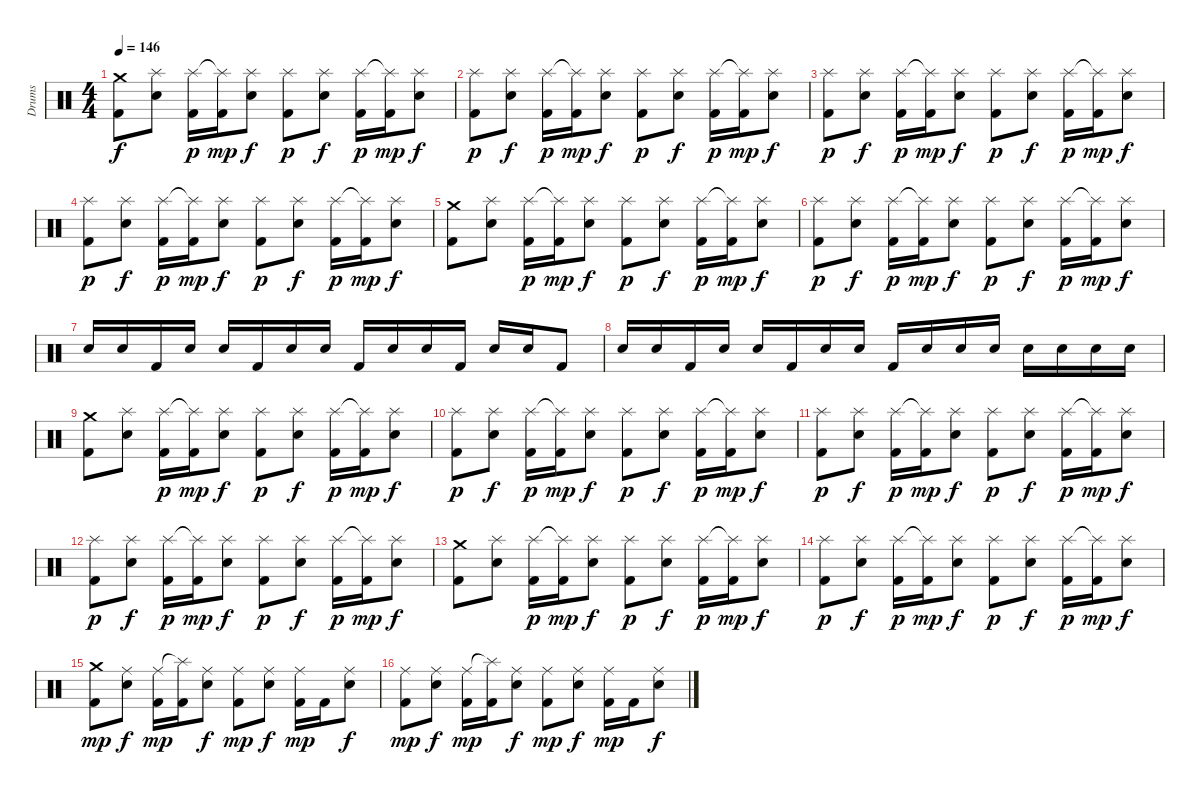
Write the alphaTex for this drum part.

\track ("Drums" "Drums") {instrument percussion}
\staff {score}
\articulation defaults
\ts (4 4)
\tempo 146
\clef neutral
\ks c
("Crash medium (hit)" "Kick (hit) 2").8{dy f} ("Splash (hit)" "Snare (hit) 2").8 ("Splash (hit)" "Kick (hit) 2").16{dy p} ("Splash (hit)"{t} "Kick (hit) 2").16{dy mp} ("Splash (hit)" "Snare (hit) 2").8{dy f} ("Splash (hit)" "Kick (hit) 2").8{dy p} ("Splash (hit)" "Snare (hit) 2").8{dy f} ("Splash (hit)" "Kick (hit) 2").16{dy p} ("Splash (hit)"{t} "Kick (hit) 2").16{dy mp} ("Splash (hit)" "Snare (hit) 2").8{dy f} |
("Splash (hit)" "Kick (hit) 2").8{dy p} ("Splash (hit)" "Snare (hit) 2").8{dy f} ("Splash (hit)" "Kick (hit) 2").16{dy p} ("Splash (hit)"{t} "Kick (hit) 2").16{dy mp} ("Splash (hit)" "Snare (hit) 2").8{dy f} ("Splash (hit)" "Kick (hit) 2").8{dy p} ("Splash (hit)" "Snare (hit) 2").8{dy f} ("Splash (hit)" "Kick (hit) 2").16{dy p} ("Splash (hit)"{t} "Kick (hit) 2").16{dy mp} ("Splash (hit)" "Snare (hit) 2").8{dy f} |
("Splash (hit)" "Kick (hit) 2").8{dy p} ("Splash (hit)" "Snare (hit) 2").8{dy f} ("Splash (hit)" "Kick (hit) 2").16{dy p} ("Splash (hit)"{t} "Kick (hit) 2").16{dy mp} ("Splash (hit)" "Snare (hit) 2").8{dy f} ("Splash (hit)" "Kick (hit) 2").8{dy p} ("Splash (hit)" "Snare (hit) 2").8{dy f} ("Splash (hit)" "Kick (hit) 2").16{dy p} ("Splash (hit)"{t} "Kick (hit) 2").16{dy mp} ("Splash (hit)" "Snare (hit) 2").8{dy f} |
("Splash (hit)" "Kick (hit) 2").8{dy p} ("Splash (hit)" "Snare (hit) 2").8{dy f} ("Splash (hit)" "Kick (hit) 2").16{dy p} ("Splash (hit)"{t} "Kick (hit) 2").16{dy mp} ("Splash (hit)" "Snare (hit) 2").8{dy f} ("Splash (hit)" "Kick (hit) 2").8{dy p} ("Splash (hit)" "Snare (hit) 2").8{dy f} ("Splash (hit)" "Kick (hit) 2").16{dy p} ("Splash (hit)"{t} "Kick (hit) 2").16{dy mp} ("Splash (hit)" "Snare (hit) 2").8{dy f} |
("Crash medium (hit)" "Kick (hit) 2").8 ("Splash (hit)" "Snare (hit) 2").8 ("Splash (hit)" "Kick (hit) 2").16{dy p} ("Splash (hit)"{t} "Kick (hit) 2").16{dy mp} ("Splash (hit)" "Snare (hit) 2").8{dy f} ("Splash (hit)" "Kick (hit) 2").8{dy p} ("Splash (hit)" "Snare (hit) 2").8{dy f} ("Splash (hit)" "Kick (hit) 2").16{dy p} ("Splash (hit)"{t} "Kick (hit) 2").16{dy mp} ("Splash (hit)" "Snare (hit) 2").8{dy f} |
("Splash (hit)" "Kick (hit) 2").8{dy p} ("Splash (hit)" "Snare (hit) 2").8{dy f} ("Splash (hit)" "Kick (hit) 2").16{dy p} ("Splash (hit)"{t} "Kick (hit) 2").16{dy mp} ("Splash (hit)" "Snare (hit) 2").8{dy f} ("Splash (hit)" "Kick (hit) 2").8{dy p} ("Splash (hit)" "Snare (hit) 2").8{dy f} ("Splash (hit)" "Kick (hit) 2").16{dy p} ("Splash (hit)"{t} "Kick (hit) 2").16{dy mp} ("Splash (hit)" "Snare (hit) 2").8{dy f} |
"Snare (hit) 2".16 "Snare (hit) 2".16 "Kick (hit) 2".16 "Snare (hit) 2".16 "Snare (hit) 2".16 "Kick (hit) 2".16 "Snare (hit) 2".16 "Snare (hit) 2".16 "Kick (hit) 2".16 "Snare (hit) 2".16 "Snare (hit) 2".16 "Kick (hit) 2".16 "Snare (hit) 2".16 "Snare (hit) 2".16 "Kick (hit) 2".8 |
"Snare (hit) 2".16 "Snare (hit) 2".16 "Kick (hit) 2".16 "Snare (hit) 2".16 "Snare (hit) 2".16 "Kick (hit) 2".16 "Snare (hit) 2".16 "Snare (hit) 2".16 "Kick (hit) 2".16 "Snare (hit) 2".16 "Snare (hit) 2".16 "Snare (hit) 2".16 "Snare (hit) 2".16 "Snare (hit) 2".16 "Snare (hit) 2".16 "Snare (hit) 2".16 |
("Crash medium (hit)" "Kick (hit) 2").8 ("Splash (hit)" "Snare (hit) 2").8 ("Splash (hit)" "Kick (hit) 2").16{dy p} ("Splash (hit)"{t} "Kick (hit) 2").16{dy mp} ("Splash (hit)" "Snare (hit) 2").8{dy f} ("Splash (hit)" "Kick (hit) 2").8{dy p} ("Splash (hit)" "Snare (hit) 2").8{dy f} ("Splash (hit)" "Kick (hit) 2").16{dy p} ("Splash (hit)"{t} "Kick (hit) 2").16{dy mp} ("Splash (hit)" "Snare (hit) 2").8{dy f} |
("Splash (hit)" "Kick (hit) 2").8{dy p} ("Splash (hit)" "Snare (hit) 2").8{dy f} ("Splash (hit)" "Kick (hit) 2").16{dy p} ("Splash (hit)"{t} "Kick (hit) 2").16{dy mp} ("Splash (hit)" "Snare (hit) 2").8{dy f} ("Splash (hit)" "Kick (hit) 2").8{dy p} ("Splash (hit)" "Snare (hit) 2").8{dy f} ("Splash (hit)" "Kick (hit) 2").16{dy p} ("Splash (hit)"{t} "Kick (hit) 2").16{dy mp} ("Splash (hit)" "Snare (hit) 2").8{dy f} |
("Splash (hit)" "Kick (hit) 2").8{dy p} ("Splash (hit)" "Snare (hit) 2").8{dy f} ("Splash (hit)" "Kick (hit) 2").16{dy p} ("Splash (hit)"{t} "Kick (hit) 2").16{dy mp} ("Splash (hit)" "Snare (hit) 2").8{dy f} ("Splash (hit)" "Kick (hit) 2").8{dy p} ("Splash (hit)" "Snare (hit) 2").8{dy f} ("Splash (hit)" "Kick (hit) 2").16{dy p} ("Splash (hit)"{t} "Kick (hit) 2").16{dy mp} ("Splash (hit)" "Snare (hit) 2").8{dy f} |
("Splash (hit)" "Kick (hit) 2").8{dy p} ("Splash (hit)" "Snare (hit) 2").8{dy f} ("Splash (hit)" "Kick (hit) 2").16{dy p} ("Splash (hit)"{t} "Kick (hit) 2").16{dy mp} ("Splash (hit)" "Snare (hit) 2").8{dy f} ("Splash (hit)" "Kick (hit) 2").8{dy p} ("Splash (hit)" "Snare (hit) 2").8{dy f} ("Splash (hit)" "Kick (hit) 2").16{dy p} ("Splash (hit)"{t} "Kick (hit) 2").16{dy mp} ("Splash (hit)" "Snare (hit) 2").8{dy f} |
("Crash medium (hit)" "Kick (hit) 2").8 ("Splash (hit)" "Snare (hit) 2").8 ("Splash (hit)" "Kick (hit) 2").16{dy p} ("Splash (hit)"{t} "Kick (hit) 2").16{dy mp} ("Splash (hit)" "Snare (hit) 2").8{dy f} ("Splash (hit)" "Kick (hit) 2").8{dy p} ("Splash (hit)" "Snare (hit) 2").8{dy f} ("Splash (hit)" "Kick (hit) 2").16{dy p} ("Splash (hit)"{t} "Kick (hit) 2").16{dy mp} ("Splash (hit)" "Snare (hit) 2").8{dy f} |
("Splash (hit)" "Kick (hit) 2").8{dy p} ("Splash (hit)" "Snare (hit) 2").8{dy f} ("Splash (hit)" "Kick (hit) 2").16{dy p} ("Splash (hit)"{t} "Kick (hit) 2").16{dy mp} ("Splash (hit)" "Snare (hit) 2").8{dy f} ("Splash (hit)" "Kick (hit) 2").8{dy p} ("Splash (hit)" "Snare (hit) 2").8{dy f} ("Splash (hit)" "Kick (hit) 2").16{dy p} ("Splash (hit)"{t} "Kick (hit) 2").16{dy mp} ("Splash (hit)" "Snare (hit) 2").8{dy f} |
("Crash medium (hit)" "Kick (hit) 2").8{dy mp} ("Ride (middle)" "Snare (hit) 2").8{dy f} ("Ride (middle)" "Kick (hit) 2").16{dy mp} ("Splash (hit)"{t} "Kick (hit) 2").16 ("Ride (middle)" "Snare (hit) 2").8{dy f} ("Ride (middle)" "Kick (hit) 2").8{dy mp} ("Ride (middle)" "Snare (hit) 2").8{dy f} ("Ride (middle)" "Kick (hit) 2").16{dy mp} "Kick (hit) 2".16 ("Ride (middle)" "Snare (hit) 2").8{dy f} |
("Ride (middle)" "Kick (hit) 2").8{dy mp} ("Ride (middle)" "Snare (hit) 2").8{dy f} ("Ride (middle)" "Kick (hit) 2").16{dy mp} ("Splash (hit)"{t} "Kick (hit) 2").16 ("Ride (middle)" "Snare (hit) 2").8{dy f} ("Ride (middle)" "Kick (hit) 2").8{dy mp} ("Ride (middle)" "Snare (hit) 2").8{dy f} ("Ride (middle)" "Kick (hit) 2").16{dy mp} "Kick (hit) 2".16 ("Ride (middle)" "Snare (hit) 2").8{dy f}
